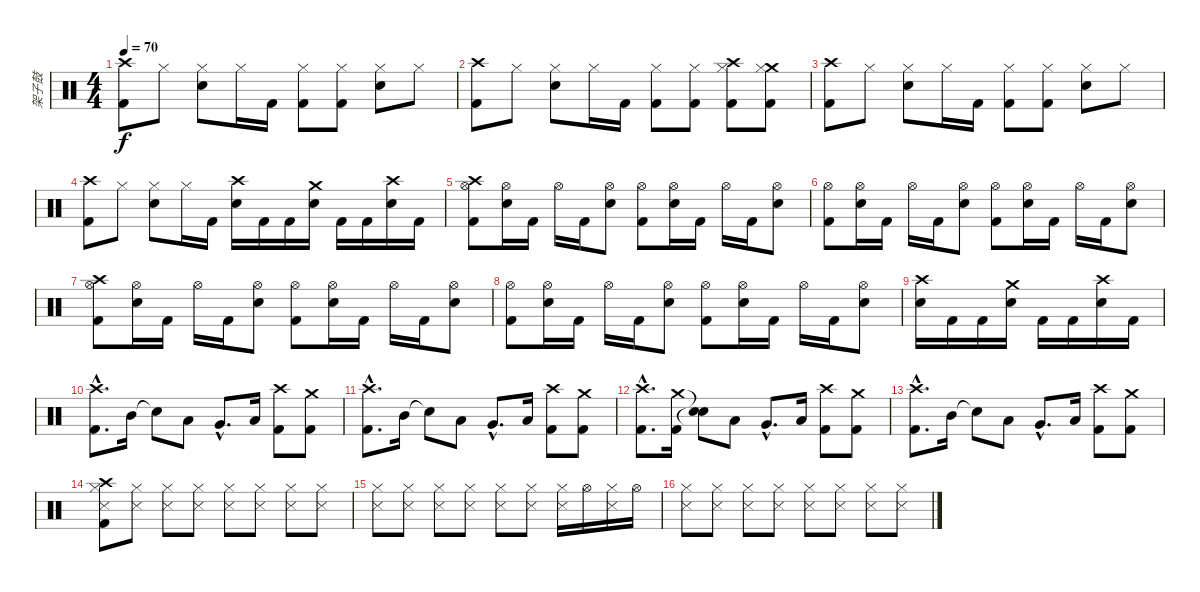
\track ("架子鼓" "架子鼓") {instrument percussion}
\staff {score}
\articulation defaults
\ts (4 4)
\tempo 70
\clef neutral
\ks c
("Crash high (hit)" "Kick (hit) 2").8{dy f} "Hi-Hat (closed)".8 ("Hi-Hat (closed)" "Snare (hit) 2").8 "Hi-Hat (closed)".16 "Kick (hit) 2".16 ("Hi-Hat (closed)" "Kick (hit) 2").8 ("Hi-Hat (closed)" "Kick (hit) 2").8 ("Hi-Hat (closed)" "Snare (hit) 2").8 "Hi-Hat (closed)".8 |
("Crash high (hit)" "Kick (hit) 2").8 "Hi-Hat (closed)".8 ("Hi-Hat (closed)" "Snare (hit) 2").8 "Hi-Hat (closed)".16 "Kick (hit) 2".16 ("Hi-Hat (closed)" "Kick (hit) 2").8 ("Hi-Hat (closed)" "Kick (hit) 2").8 ("Crash high (hit)" "Hi-Hat (closed)" "Kick (hit) 2").8 ("Crash medium (hit)" "Hi-Hat (closed)" "Kick (hit) 2").8 |
("Crash high (hit)" "Kick (hit) 2").8 "Hi-Hat (closed)".8 ("Hi-Hat (closed)" "Snare (hit) 2").8 "Hi-Hat (closed)".16 "Kick (hit) 2".16 ("Hi-Hat (closed)" "Kick (hit) 2").8 ("Hi-Hat (closed)" "Kick (hit) 2").8 ("Hi-Hat (closed)" "Snare (hit) 2").8 "Hi-Hat (closed)".8 |
("Crash high (hit)" "Kick (hit) 2").8 "Hi-Hat (closed)".8 ("Hi-Hat (closed)" "Snare (hit) 2").8 "Hi-Hat (closed)".16 "Kick (hit) 2".16 ("Crash high (hit)" "Snare (hit) 2").16 "Kick (hit) 2".16 "Kick (hit) 2".16 ("Crash medium (hit)" "Snare (hit) 2").16 "Kick (hit) 2".16 "Kick (hit) 2".16 ("Crash high (hit)" "Snare (hit) 2").16 "Kick (hit) 2".16 |
("Crash high (hit)" "Hi-Hat (open)" "Kick (hit) 2").8 ("Hi-Hat (open)" "Snare (hit) 2").16 "Kick (hit) 2".16 "Hi-Hat (open)".16 "Kick (hit) 2".16 ("Hi-Hat (open)" "Snare (hit) 2").8 ("Hi-Hat (open)" "Kick (hit) 2").8 ("Hi-Hat (open)" "Snare (hit) 2").16 "Kick (hit) 2".16 "Hi-Hat (open)".16 "Kick (hit) 2".16 ("Hi-Hat (open)" "Snare (hit) 2").8 |
("Hi-Hat (open)" "Kick (hit) 2").8 ("Hi-Hat (open)" "Snare (hit) 2").16 "Kick (hit) 2".16 "Hi-Hat (open)".16 "Kick (hit) 2".16 ("Hi-Hat (open)" "Snare (hit) 2").8 ("Hi-Hat (open)" "Kick (hit) 2").8 ("Hi-Hat (open)" "Snare (hit) 2").16 "Kick (hit) 2".16 "Hi-Hat (open)".16 "Kick (hit) 2".16 ("Hi-Hat (open)" "Snare (hit) 2").8 |
("Crash high (hit)" "Hi-Hat (open)" "Kick (hit) 2").8 ("Hi-Hat (open)" "Snare (hit) 2").16 "Kick (hit) 2".16 "Hi-Hat (open)".16 "Kick (hit) 2".16 ("Hi-Hat (open)" "Snare (hit) 2").8 ("Hi-Hat (open)" "Kick (hit) 2").8 ("Hi-Hat (open)" "Snare (hit) 2").16 "Kick (hit) 2".16 "Hi-Hat (open)".16 "Kick (hit) 2".16 ("Hi-Hat (open)" "Snare (hit) 2").8 |
("Hi-Hat (open)" "Kick (hit) 2").8 ("Hi-Hat (open)" "Snare (hit) 2").16 "Kick (hit) 2".16 "Hi-Hat (open)".16 "Kick (hit) 2".16 ("Hi-Hat (open)" "Snare (hit) 2").8 ("Hi-Hat (open)" "Kick (hit) 2").8 ("Hi-Hat (open)" "Snare (hit) 2").16 "Kick (hit) 2".16 "Hi-Hat (open)".16 "Kick (hit) 2".16 ("Hi-Hat (open)" "Snare (hit) 2").8 |
("Crash high (hit)" "Snare (hit) 2").16 "Kick (hit) 2".16 "Kick (hit) 2".16 ("Crash medium (hit)" "Snare (hit) 2").16 "Kick (hit) 2".16 "Kick (hit) 2".16 ("Crash high (hit)" "Snare (hit) 2").16 "Kick (hit) 2".16 |
("Crash high (hit)"{hac} "Kick (hit) 2"{hac}).8{d} "Mid Tom (hit)".16 "Snare (hit)"{t}.8 "Low Tom (hit)".8 "Very Low Tom (hit)"{hac}.8{d} "Low Floor Tom (hit)".16 ("Crash high (hit)" "Kick (hit) 2").8 ("Crash medium (hit)" "Kick (hit) 2").8 |
("Crash high (hit)"{hac} "Kick (hit) 2"{hac}).8{d} "Mid Tom (hit)".16 "Snare (hit)"{t}.8 "Low Tom (hit)".8 "Very Low Tom (hit)"{hac}.8{d} "Low Floor Tom (hit)".16 ("Crash high (hit)" "Kick (hit) 2").8 ("Crash medium (hit)" "Kick (hit) 2").8 |
("Crash high (hit)"{hac} "Kick (hit) 2"{hac}).8{d} ("Crash medium (hit)" "Kick (hit) 2").16 ("Snare (hit)"{t} "Snare (hit)"{t}).8 "Low Tom (hit)".8 "Very Low Tom (hit)"{hac}.8{d} "Low Floor Tom (hit)".16 ("Crash high (hit)" "Kick (hit) 2").8 ("Crash medium (hit)" "Kick (hit) 2").8 |
("Crash high (hit)"{hac} "Kick (hit) 2"{hac}).8{d} "Mid Tom (hit)".16 "Snare (hit)"{t}.8 "Low Tom (hit)".8 "Very Low Tom (hit)"{hac}.8{d} "Low Floor Tom (hit)".16 ("Crash high (hit)" "Kick (hit) 2").8 ("Crash medium (hit)" "Kick (hit) 2").8 |
("Crash high (hit)" "Snare (side stick) 3" "Hi-Hat (closed)" "Kick (hit) 2").8 ("Snare (side stick) 3" "Hi-Hat (closed)").8 ("Snare (side stick) 3" "Hi-Hat (closed)").8 ("Snare (side stick) 3" "Hi-Hat (closed)").8 ("Snare (side stick) 3" "Hi-Hat (closed)").8 ("Snare (side stick) 3" "Hi-Hat (closed)").8 ("Snare (side stick) 3" "Hi-Hat (closed)").8 ("Snare (side stick) 3" "Hi-Hat (closed)").8 |
("Snare (side stick) 3" "Hi-Hat (closed)").8 ("Snare (side stick) 3" "Hi-Hat (closed)").8 ("Snare (side stick) 3" "Hi-Hat (closed)").8 ("Snare (side stick) 3" "Hi-Hat (closed)").8 ("Snare (side stick) 3" "Hi-Hat (closed)").8 ("Snare (side stick) 3" "Hi-Hat (closed)").8 ("Snare (side stick) 3" "Hi-Hat (closed)").16 "Hi-Hat (open)".16 ("Snare (side stick) 3" "Hi-Hat (closed)").16 "Hi-Hat (open)".16 |
("Snare (side stick) 3" "Hi-Hat (closed)").8 ("Snare (side stick) 3" "Hi-Hat (closed)").8 ("Snare (side stick) 3" "Hi-Hat (closed)").8 ("Snare (side stick) 3" "Hi-Hat (closed)").8 ("Snare (side stick) 3" "Hi-Hat (closed)").8 ("Snare (side stick) 3" "Hi-Hat (closed)").8 ("Snare (side stick) 3" "Hi-Hat (closed)").8 ("Snare (side stick) 3" "Hi-Hat (closed)").8
